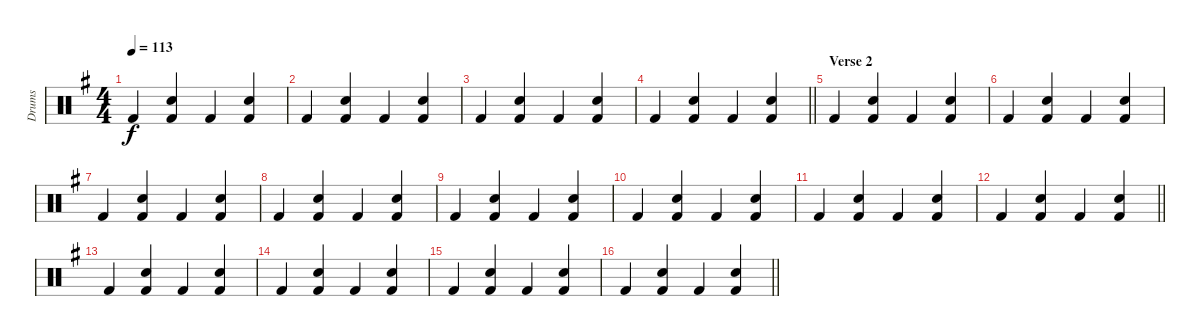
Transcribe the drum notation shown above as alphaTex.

\track ("Drums" "Drums") {instrument percussion}
\staff {score}
\articulation defaults
\ts (4 4)
\tempo 113
\clef neutral
\ks g "Kick (hit) 2".4{dy f}
("Snare (hit) 2" "Kick (hit) 2").4 "Kick (hit) 2".4 ("Snare (hit) 2" "Kick (hit) 2").4 |
"Kick (hit) 2".4 ("Snare (hit) 2" "Kick (hit) 2").4 "Kick (hit) 2".4 ("Snare (hit) 2" "Kick (hit) 2").4 |
"Kick (hit) 2".4 ("Snare (hit) 2" "Kick (hit) 2").4 "Kick (hit) 2".4 ("Snare (hit) 2" "Kick (hit) 2").4 |
\barLineRight lightlight "Kick (hit) 2".4
("Snare (hit) 2" "Kick (hit) 2").4 "Kick (hit) 2".4 ("Snare (hit) 2" "Kick (hit) 2").4 |
\section ("" "Verse 2")
"Kick (hit) 2".4 ("Snare (hit) 2" "Kick (hit) 2").4 "Kick (hit) 2".4 ("Snare (hit) 2" "Kick (hit) 2").4 |
"Kick (hit) 2".4 ("Snare (hit) 2" "Kick (hit) 2").4 "Kick (hit) 2".4 ("Snare (hit) 2" "Kick (hit) 2").4 |
"Kick (hit) 2".4 ("Snare (hit) 2" "Kick (hit) 2").4 "Kick (hit) 2".4 ("Snare (hit) 2" "Kick (hit) 2").4 |
"Kick (hit) 2".4 ("Snare (hit) 2" "Kick (hit) 2").4 "Kick (hit) 2".4 ("Snare (hit) 2" "Kick (hit) 2").4 |
"Kick (hit) 2".4 ("Snare (hit) 2" "Kick (hit) 2").4 "Kick (hit) 2".4 ("Snare (hit) 2" "Kick (hit) 2").4 |
"Kick (hit) 2".4 ("Snare (hit) 2" "Kick (hit) 2").4 "Kick (hit) 2".4 ("Snare (hit) 2" "Kick (hit) 2").4 |
"Kick (hit) 2".4 ("Snare (hit) 2" "Kick (hit) 2").4 "Kick (hit) 2".4 ("Snare (hit) 2" "Kick (hit) 2").4 |
\barLineRight lightlight "Kick (hit) 2".4
("Snare (hit) 2" "Kick (hit) 2").4 "Kick (hit) 2".4 ("Snare (hit) 2" "Kick (hit) 2").4 |
"Kick (hit) 2".4 ("Snare (hit) 2" "Kick (hit) 2").4 "Kick (hit) 2".4 ("Snare (hit) 2" "Kick (hit) 2").4 |
"Kick (hit) 2".4 ("Snare (hit) 2" "Kick (hit) 2").4 "Kick (hit) 2".4 ("Snare (hit) 2" "Kick (hit) 2").4 |
"Kick (hit) 2".4 ("Snare (hit) 2" "Kick (hit) 2").4 "Kick (hit) 2".4 ("Snare (hit) 2" "Kick (hit) 2").4 |
\barLineRight lightlight "Kick (hit) 2".4
("Snare (hit) 2" "Kick (hit) 2").4 "Kick (hit) 2".4 ("Snare (hit) 2" "Kick (hit) 2").4
